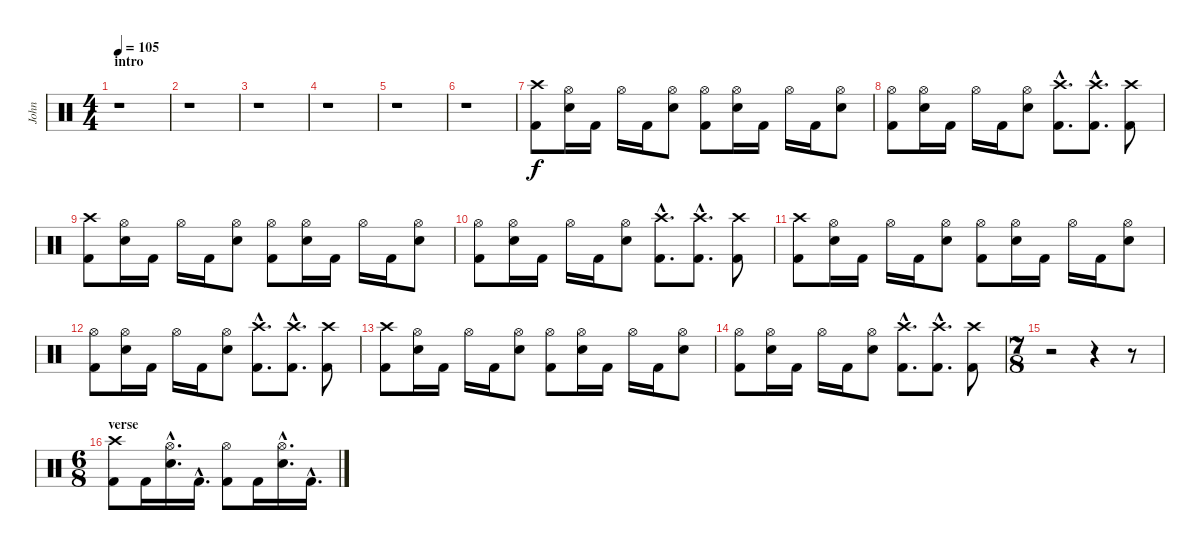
\track ("John" "John") {instrument percussion}
\staff {score}
\articulation defaults
\ts (4 4)
\section ("" "intro")
\tempo 105
\tempo 160
\tempo 105
\clef neutral
\ks c
r.1{dy f} |
r.1 |
r.1 |
r.1 |
r.1 |
r.1 |
("Crash high (hit)" "Kick (hit) 2").8 ("Hi-Hat (open)" "Electric Snare (hit)").16 "Kick (hit) 2".16 "Hi-Hat (open)".16 "Kick (hit) 2".16 ("Hi-Hat (open)" "Electric Snare (hit)").8 ("Hi-Hat (open)" "Kick (hit) 2").8 ("Hi-Hat (open)" "Electric Snare (hit)").16 "Kick (hit) 2".16 "Hi-Hat (open)".16 "Kick (hit) 2".16 ("Hi-Hat (open)" "Electric Snare (hit)").8 |
("Hi-Hat (open)" "Kick (hit) 2").8 ("Hi-Hat (open)" "Electric Snare (hit)").16 "Kick (hit) 2".16 "Hi-Hat (open)".16 "Kick (hit) 2".16 ("Hi-Hat (open)" "Electric Snare (hit)").8 ("Crash high (hit)"{hac} "Kick (hit) 2"{hac}).8{d} ("Crash high (hit)"{hac} "Kick (hit) 2"{hac}).8{d} ("Crash high (hit)" "Kick (hit) 2").8 |
("Crash high (hit)" "Kick (hit) 2").8 ("Hi-Hat (open)" "Electric Snare (hit)").16 "Kick (hit) 2".16 "Hi-Hat (open)".16 "Kick (hit) 2".16 ("Hi-Hat (open)" "Electric Snare (hit)").8 ("Hi-Hat (open)" "Kick (hit) 2").8 ("Hi-Hat (open)" "Electric Snare (hit)").16 "Kick (hit) 2".16 "Hi-Hat (open)".16 "Kick (hit) 2".16 ("Hi-Hat (open)" "Electric Snare (hit)").8 |
("Hi-Hat (open)" "Kick (hit) 2").8 ("Hi-Hat (open)" "Electric Snare (hit)").16 "Kick (hit) 2".16 "Hi-Hat (open)".16 "Kick (hit) 2".16 ("Hi-Hat (open)" "Electric Snare (hit)").8 ("Crash high (hit)"{hac} "Kick (hit) 2"{hac}).8{d} ("Crash high (hit)"{hac} "Kick (hit) 2"{hac}).8{d} ("Crash high (hit)" "Kick (hit) 2").8 |
("Crash high (hit)" "Kick (hit) 2").8 ("Hi-Hat (open)" "Electric Snare (hit)").16 "Kick (hit) 2".16 "Hi-Hat (open)".16 "Kick (hit) 2".16 ("Hi-Hat (open)" "Electric Snare (hit)").8 ("Hi-Hat (open)" "Kick (hit) 2").8 ("Hi-Hat (open)" "Electric Snare (hit)").16 "Kick (hit) 2".16 "Hi-Hat (open)".16 "Kick (hit) 2".16 ("Hi-Hat (open)" "Electric Snare (hit)").8 |
("Hi-Hat (open)" "Kick (hit) 2").8 ("Hi-Hat (open)" "Electric Snare (hit)").16 "Kick (hit) 2".16 "Hi-Hat (open)".16 "Kick (hit) 2".16 ("Hi-Hat (open)" "Electric Snare (hit)").8 ("Crash high (hit)"{hac} "Kick (hit) 2"{hac}).8{d} ("Crash high (hit)"{hac} "Kick (hit) 2"{hac}).8{d} ("Crash high (hit)" "Kick (hit) 2").8 |
("Crash high (hit)" "Kick (hit) 2").8 ("Hi-Hat (open)" "Electric Snare (hit)").16 "Kick (hit) 2".16 "Hi-Hat (open)".16 "Kick (hit) 2".16 ("Hi-Hat (open)" "Electric Snare (hit)").8 ("Hi-Hat (open)" "Kick (hit) 2").8 ("Hi-Hat (open)" "Electric Snare (hit)").16 "Kick (hit) 2".16 "Hi-Hat (open)".16 "Kick (hit) 2".16 ("Hi-Hat (open)" "Electric Snare (hit)").8 |
("Hi-Hat (open)" "Kick (hit) 2").8 ("Hi-Hat (open)" "Electric Snare (hit)").16 "Kick (hit) 2".16 "Hi-Hat (open)".16 "Kick (hit) 2".16 ("Hi-Hat (open)" "Electric Snare (hit)").8 ("Crash high (hit)"{hac} "Kick (hit) 2"{hac}).8{d} ("Crash high (hit)"{hac} "Kick (hit) 2"{hac}).8{d} ("Crash high (hit)" "Kick (hit) 2").8 |
\ts (7 8)
r.2 r.4 r.8 |
\ts (6 8)
\section ("" "verse")
("Crash high (hit)" "Kick (hit) 2").8 "Kick (hit) 2".16 ("Hi-Hat (open)"{hac} "Electric Snare (hit)"{hac}).16{d} "Kick (hit) 2"{hac}.16{d} ("Hi-Hat (open)" "Kick (hit) 2").8 "Kick (hit) 2".16 ("Hi-Hat (open)"{hac} "Electric Snare (hit)"{hac}).16{d} "Kick (hit) 2"{hac}.16{d}
